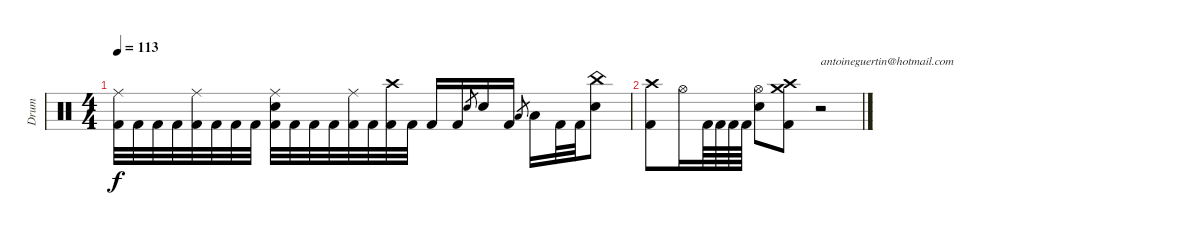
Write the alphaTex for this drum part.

\track ("Drum" "Drum") {instrument percussion}
\staff {score}
\articulation defaults
\ts (4 4)
\tempo 113
\clef neutral
\ks c
("Ride (middle)" "Kick (hit) 2").32{dy f} "Kick (hit) 2".32 "Kick (hit) 2".32 "Kick (hit) 2".32 ("Ride (middle)" "Kick (hit) 2").32 "Kick (hit) 2".32 "Kick (hit) 2".32 "Kick (hit) 2".32 ("Ride (middle)" "Electric Snare (hit)" "Kick (hit) 2").32 "Kick (hit) 2".32 "Kick (hit) 2".32 "Kick (hit) 2".32 ("Ride (middle)" "Kick (hit) 2").32 "Kick (hit) 2".32 ("Crash high (hit)" "Kick (hit) 2").32 "Kick (hit) 2".32 "Kick (hit) 2".16 "Kick (hit) 2".16 "Electric Snare (hit)".8{gr} "Electric Snare (hit)".16 "Kick (hit) 2".16 "Low Floor Tom (hit)".8{gr} "Low Tom (hit)".16 "Kick (hit) 2".32 "Kick (hit) 2".32 ("China (hit)" "Electric Snare (hit)").8 |
("Crash high (hit)" "Kick (hit) 2").8 "Hi-Hat (open)".16 "Kick (hit) 2".64 "Kick (hit) 2".64 "Kick (hit) 2".64 "Kick (hit) 2".64 ("Hi-Hat (open)" "Electric Snare (hit)").8 ("Crash high (hit)" "Crash medium (hit)" "Kick (hit) 2").8 r.2{txt "antoineguertin@hotmail.com" volume 0}
